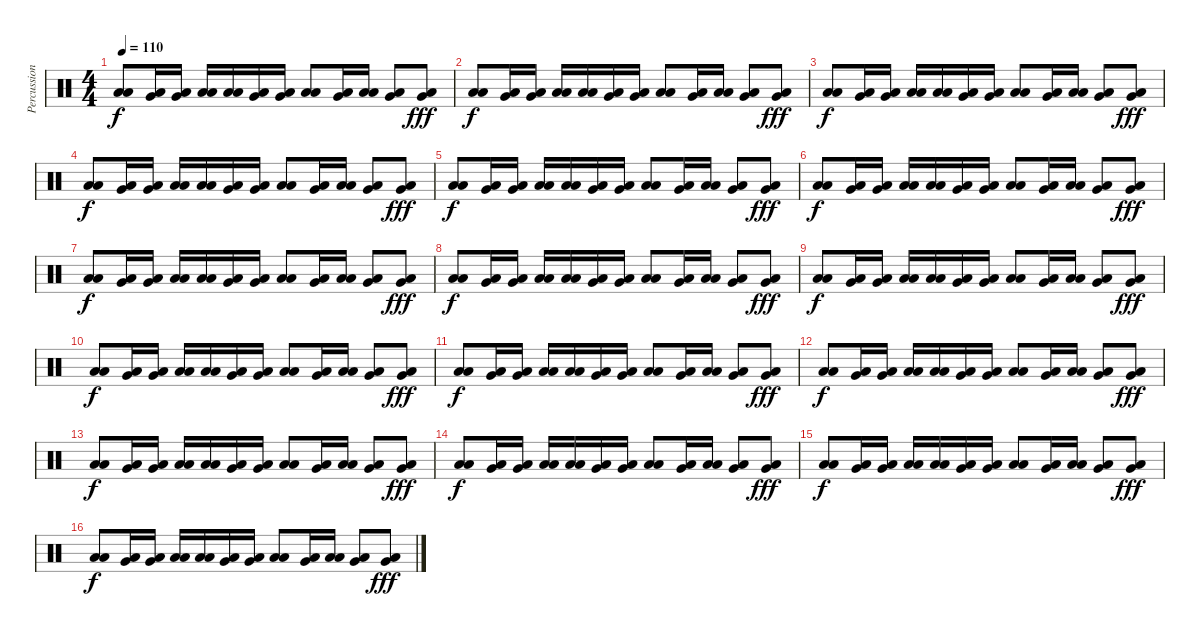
\track ("Percussion" "Percussion") {instrument percussion}
\staff {score}
\articulation defaults
\ts (4 4)
\tempo 110
\clef neutral
\ks c
("Low Floor Tom (hit)" "Low Floor Tom (hit)").8{dy f} ("Low Tom (hit)" "Very Low Tom (hit)").16 ("Low Tom (hit)" "Very Low Tom (hit)").16 ("Low Floor Tom (hit)" "Low Floor Tom (hit)").16 ("Low Floor Tom (hit)" "Low Floor Tom (hit)").16 ("Low Tom (hit)" "Very Low Tom (hit)").16 ("Low Tom (hit)" "Very Low Tom (hit)").16 ("Low Floor Tom (hit)" "Low Floor Tom (hit)").8 ("Low Tom (hit)" "Very Low Tom (hit)").16 ("Low Tom (hit)" "Low Tom (hit)").16 ("Low Floor Tom (hit)" "Very Low Tom (hit)").8 ("Low Floor Tom (hit)" "Very Low Tom (hit)").8{dy fff} |
("Low Floor Tom (hit)" "Low Floor Tom (hit)").8{dy f} ("Low Tom (hit)" "Very Low Tom (hit)").16 ("Low Tom (hit)" "Very Low Tom (hit)").16 ("Low Floor Tom (hit)" "Low Floor Tom (hit)").16 ("Low Floor Tom (hit)" "Low Floor Tom (hit)").16 ("Low Tom (hit)" "Very Low Tom (hit)").16 ("Low Tom (hit)" "Very Low Tom (hit)").16 ("Low Floor Tom (hit)" "Low Floor Tom (hit)").8 ("Low Tom (hit)" "Very Low Tom (hit)").16 ("Low Tom (hit)" "Low Tom (hit)").16 ("Low Floor Tom (hit)" "Very Low Tom (hit)").8 ("Low Floor Tom (hit)" "Very Low Tom (hit)").8{dy fff} |
("Low Floor Tom (hit)" "Low Floor Tom (hit)").8{dy f} ("Low Tom (hit)" "Very Low Tom (hit)").16 ("Low Tom (hit)" "Very Low Tom (hit)").16 ("Low Floor Tom (hit)" "Low Floor Tom (hit)").16 ("Low Floor Tom (hit)" "Low Floor Tom (hit)").16 ("Low Tom (hit)" "Very Low Tom (hit)").16 ("Low Tom (hit)" "Very Low Tom (hit)").16 ("Low Floor Tom (hit)" "Low Floor Tom (hit)").8 ("Low Tom (hit)" "Very Low Tom (hit)").16 ("Low Tom (hit)" "Low Tom (hit)").16 ("Low Floor Tom (hit)" "Very Low Tom (hit)").8 ("Low Floor Tom (hit)" "Very Low Tom (hit)").8{dy fff} |
("Low Floor Tom (hit)" "Low Floor Tom (hit)").8{dy f} ("Low Tom (hit)" "Very Low Tom (hit)").16 ("Low Tom (hit)" "Very Low Tom (hit)").16 ("Low Floor Tom (hit)" "Low Floor Tom (hit)").16 ("Low Floor Tom (hit)" "Low Floor Tom (hit)").16 ("Low Tom (hit)" "Very Low Tom (hit)").16 ("Low Tom (hit)" "Very Low Tom (hit)").16 ("Low Floor Tom (hit)" "Low Floor Tom (hit)").8 ("Low Tom (hit)" "Very Low Tom (hit)").16 ("Low Tom (hit)" "Low Tom (hit)").16 ("Low Floor Tom (hit)" "Very Low Tom (hit)").8 ("Low Floor Tom (hit)" "Very Low Tom (hit)").8{dy fff} |
("Low Floor Tom (hit)" "Low Floor Tom (hit)").8{dy f} ("Low Tom (hit)" "Very Low Tom (hit)").16 ("Low Tom (hit)" "Very Low Tom (hit)").16 ("Low Floor Tom (hit)" "Low Floor Tom (hit)").16 ("Low Floor Tom (hit)" "Low Floor Tom (hit)").16 ("Low Tom (hit)" "Very Low Tom (hit)").16 ("Low Tom (hit)" "Very Low Tom (hit)").16 ("Low Floor Tom (hit)" "Low Floor Tom (hit)").8 ("Low Tom (hit)" "Very Low Tom (hit)").16 ("Low Tom (hit)" "Low Tom (hit)").16 ("Low Floor Tom (hit)" "Very Low Tom (hit)").8 ("Low Floor Tom (hit)" "Very Low Tom (hit)").8{dy fff} |
("Low Floor Tom (hit)" "Low Floor Tom (hit)").8{dy f} ("Low Tom (hit)" "Very Low Tom (hit)").16 ("Low Tom (hit)" "Very Low Tom (hit)").16 ("Low Floor Tom (hit)" "Low Floor Tom (hit)").16 ("Low Floor Tom (hit)" "Low Floor Tom (hit)").16 ("Low Tom (hit)" "Very Low Tom (hit)").16 ("Low Tom (hit)" "Very Low Tom (hit)").16 ("Low Floor Tom (hit)" "Low Floor Tom (hit)").8 ("Low Tom (hit)" "Very Low Tom (hit)").16 ("Low Tom (hit)" "Low Tom (hit)").16 ("Low Floor Tom (hit)" "Very Low Tom (hit)").8 ("Low Floor Tom (hit)" "Very Low Tom (hit)").8{dy fff} |
("Low Floor Tom (hit)" "Low Floor Tom (hit)").8{dy f} ("Low Tom (hit)" "Very Low Tom (hit)").16 ("Low Tom (hit)" "Very Low Tom (hit)").16 ("Low Floor Tom (hit)" "Low Floor Tom (hit)").16 ("Low Floor Tom (hit)" "Low Floor Tom (hit)").16 ("Low Tom (hit)" "Very Low Tom (hit)").16 ("Low Tom (hit)" "Very Low Tom (hit)").16 ("Low Floor Tom (hit)" "Low Floor Tom (hit)").8 ("Low Tom (hit)" "Very Low Tom (hit)").16 ("Low Tom (hit)" "Low Tom (hit)").16 ("Low Floor Tom (hit)" "Very Low Tom (hit)").8 ("Low Floor Tom (hit)" "Very Low Tom (hit)").8{dy fff} |
("Low Floor Tom (hit)" "Low Floor Tom (hit)").8{dy f} ("Low Tom (hit)" "Very Low Tom (hit)").16 ("Low Tom (hit)" "Very Low Tom (hit)").16 ("Low Floor Tom (hit)" "Low Floor Tom (hit)").16 ("Low Floor Tom (hit)" "Low Floor Tom (hit)").16 ("Low Tom (hit)" "Very Low Tom (hit)").16 ("Low Tom (hit)" "Very Low Tom (hit)").16 ("Low Floor Tom (hit)" "Low Floor Tom (hit)").8 ("Low Tom (hit)" "Very Low Tom (hit)").16 ("Low Tom (hit)" "Low Tom (hit)").16 ("Low Floor Tom (hit)" "Very Low Tom (hit)").8 ("Low Floor Tom (hit)" "Very Low Tom (hit)").8{dy fff} |
("Low Floor Tom (hit)" "Low Floor Tom (hit)").8{dy f} ("Low Tom (hit)" "Very Low Tom (hit)").16 ("Low Tom (hit)" "Very Low Tom (hit)").16 ("Low Floor Tom (hit)" "Low Floor Tom (hit)").16 ("Low Floor Tom (hit)" "Low Floor Tom (hit)").16 ("Low Tom (hit)" "Very Low Tom (hit)").16 ("Low Tom (hit)" "Very Low Tom (hit)").16 ("Low Floor Tom (hit)" "Low Floor Tom (hit)").8 ("Low Tom (hit)" "Very Low Tom (hit)").16 ("Low Tom (hit)" "Low Tom (hit)").16 ("Low Floor Tom (hit)" "Very Low Tom (hit)").8 ("Low Floor Tom (hit)" "Very Low Tom (hit)").8{dy fff} |
("Low Floor Tom (hit)" "Low Floor Tom (hit)").8{dy f} ("Low Tom (hit)" "Very Low Tom (hit)").16 ("Low Tom (hit)" "Very Low Tom (hit)").16 ("Low Floor Tom (hit)" "Low Floor Tom (hit)").16 ("Low Floor Tom (hit)" "Low Floor Tom (hit)").16 ("Low Tom (hit)" "Very Low Tom (hit)").16 ("Low Tom (hit)" "Very Low Tom (hit)").16 ("Low Floor Tom (hit)" "Low Floor Tom (hit)").8 ("Low Tom (hit)" "Very Low Tom (hit)").16 ("Low Tom (hit)" "Low Tom (hit)").16 ("Low Floor Tom (hit)" "Very Low Tom (hit)").8 ("Low Floor Tom (hit)" "Very Low Tom (hit)").8{dy fff} |
("Low Floor Tom (hit)" "Low Floor Tom (hit)").8{dy f} ("Low Tom (hit)" "Very Low Tom (hit)").16 ("Low Tom (hit)" "Very Low Tom (hit)").16 ("Low Floor Tom (hit)" "Low Floor Tom (hit)").16 ("Low Floor Tom (hit)" "Low Floor Tom (hit)").16 ("Low Tom (hit)" "Very Low Tom (hit)").16 ("Low Tom (hit)" "Very Low Tom (hit)").16 ("Low Floor Tom (hit)" "Low Floor Tom (hit)").8 ("Low Tom (hit)" "Very Low Tom (hit)").16 ("Low Tom (hit)" "Low Tom (hit)").16 ("Low Floor Tom (hit)" "Very Low Tom (hit)").8 ("Low Floor Tom (hit)" "Very Low Tom (hit)").8{dy fff} |
("Low Floor Tom (hit)" "Low Floor Tom (hit)").8{dy f} ("Low Tom (hit)" "Very Low Tom (hit)").16 ("Low Tom (hit)" "Very Low Tom (hit)").16 ("Low Floor Tom (hit)" "Low Floor Tom (hit)").16 ("Low Floor Tom (hit)" "Low Floor Tom (hit)").16 ("Low Tom (hit)" "Very Low Tom (hit)").16 ("Low Tom (hit)" "Very Low Tom (hit)").16 ("Low Floor Tom (hit)" "Low Floor Tom (hit)").8 ("Low Tom (hit)" "Very Low Tom (hit)").16 ("Low Tom (hit)" "Low Tom (hit)").16 ("Low Floor Tom (hit)" "Very Low Tom (hit)").8 ("Low Floor Tom (hit)" "Very Low Tom (hit)").8{dy fff} |
("Low Floor Tom (hit)" "Low Floor Tom (hit)").8{dy f} ("Low Tom (hit)" "Very Low Tom (hit)").16 ("Low Tom (hit)" "Very Low Tom (hit)").16 ("Low Floor Tom (hit)" "Low Floor Tom (hit)").16 ("Low Floor Tom (hit)" "Low Floor Tom (hit)").16 ("Low Tom (hit)" "Very Low Tom (hit)").16 ("Low Tom (hit)" "Very Low Tom (hit)").16 ("Low Floor Tom (hit)" "Low Floor Tom (hit)").8 ("Low Tom (hit)" "Very Low Tom (hit)").16 ("Low Tom (hit)" "Low Tom (hit)").16 ("Low Floor Tom (hit)" "Very Low Tom (hit)").8 ("Low Floor Tom (hit)" "Very Low Tom (hit)").8{dy fff} |
("Low Floor Tom (hit)" "Low Floor Tom (hit)").8{dy f} ("Low Tom (hit)" "Very Low Tom (hit)").16 ("Low Tom (hit)" "Very Low Tom (hit)").16 ("Low Floor Tom (hit)" "Low Floor Tom (hit)").16 ("Low Floor Tom (hit)" "Low Floor Tom (hit)").16 ("Low Tom (hit)" "Very Low Tom (hit)").16 ("Low Tom (hit)" "Very Low Tom (hit)").16 ("Low Floor Tom (hit)" "Low Floor Tom (hit)").8 ("Low Tom (hit)" "Very Low Tom (hit)").16 ("Low Tom (hit)" "Low Tom (hit)").16 ("Low Floor Tom (hit)" "Very Low Tom (hit)").8 ("Low Floor Tom (hit)" "Very Low Tom (hit)").8{dy fff} |
("Low Floor Tom (hit)" "Low Floor Tom (hit)").8{dy f} ("Low Tom (hit)" "Very Low Tom (hit)").16 ("Low Tom (hit)" "Very Low Tom (hit)").16 ("Low Floor Tom (hit)" "Low Floor Tom (hit)").16 ("Low Floor Tom (hit)" "Low Floor Tom (hit)").16 ("Low Tom (hit)" "Very Low Tom (hit)").16 ("Low Tom (hit)" "Very Low Tom (hit)").16 ("Low Floor Tom (hit)" "Low Floor Tom (hit)").8 ("Low Tom (hit)" "Very Low Tom (hit)").16 ("Low Tom (hit)" "Low Tom (hit)").16 ("Low Floor Tom (hit)" "Very Low Tom (hit)").8 ("Low Floor Tom (hit)" "Very Low Tom (hit)").8{dy fff} |
("Low Floor Tom (hit)" "Low Floor Tom (hit)").8{dy f} ("Low Tom (hit)" "Very Low Tom (hit)").16 ("Low Tom (hit)" "Very Low Tom (hit)").16 ("Low Floor Tom (hit)" "Low Floor Tom (hit)").16 ("Low Floor Tom (hit)" "Low Floor Tom (hit)").16 ("Low Tom (hit)" "Very Low Tom (hit)").16 ("Low Tom (hit)" "Very Low Tom (hit)").16 ("Low Floor Tom (hit)" "Low Floor Tom (hit)").8 ("Low Tom (hit)" "Very Low Tom (hit)").16 ("Low Tom (hit)" "Low Tom (hit)").16 ("Low Floor Tom (hit)" "Very Low Tom (hit)").8 ("Low Floor Tom (hit)" "Very Low Tom (hit)").8{dy fff}
